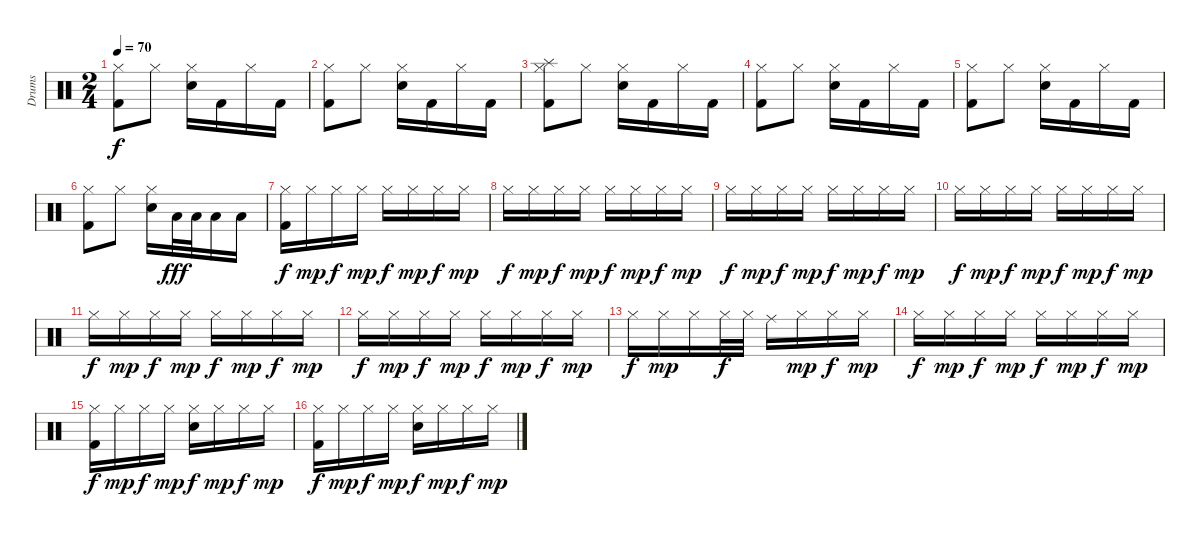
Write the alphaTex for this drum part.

\track ("Drums" "Drums") {instrument percussion}
\staff {score}
\articulation defaults
\ts (2 4)
\tempo 70
\clef neutral
\ks c
("Hi-Hat (closed)" "Kick (hit) 2").8{dy f} "Hi-Hat (closed)".8 ("Hi-Hat (closed)" "Electric Snare (hit)").16 "Kick (hit) 2".16 "Hi-Hat (closed)".16 "Kick (hit) 2".16 |
("Hi-Hat (closed)" "Kick (hit) 2").8 "Hi-Hat (closed)".8 ("Hi-Hat (closed)" "Electric Snare (hit)").16 "Kick (hit) 2".16 "Hi-Hat (closed)".16 "Kick (hit) 2".16 |
("Splash (hit)" "Hi-Hat (closed)" "Kick (hit) 2").8 "Hi-Hat (closed)".8 ("Hi-Hat (closed)" "Electric Snare (hit)").16 "Kick (hit) 2".16 "Hi-Hat (closed)".16 "Kick (hit) 2".16 |
("Hi-Hat (closed)" "Kick (hit) 2").8 "Hi-Hat (closed)".8 ("Hi-Hat (closed)" "Electric Snare (hit)").16 "Kick (hit) 2".16 "Hi-Hat (closed)".16 "Kick (hit) 2".16 |
("Hi-Hat (closed)" "Kick (hit) 2").8 "Hi-Hat (closed)".8 ("Hi-Hat (closed)" "Electric Snare (hit)").16 "Kick (hit) 2".16 "Hi-Hat (closed)".16 "Kick (hit) 2".16 |
("Hi-Hat (closed)" "Kick (hit) 2").8 "Hi-Hat (closed)".8 ("Hi-Hat (closed)" "Electric Snare (hit)").16 "Low Tom (hit)".32{dy fff} "Low Tom (hit)".32 "Low Tom (hit)".16 "Low Tom (hit)".16 |
("Hi-Hat (closed)" "Kick (hit) 2").16{dy f} "Hi-Hat (closed)".16{dy mp} "Hi-Hat (closed)".16{dy f} "Hi-Hat (closed)".16{dy mp} "Hi-Hat (closed)".16{dy f} "Hi-Hat (closed)".16{dy mp} "Hi-Hat (closed)".16{dy f} "Hi-Hat (closed)".16{dy mp} |
"Hi-Hat (closed)".16{dy f} "Hi-Hat (closed)".16{dy mp} "Hi-Hat (closed)".16{dy f} "Hi-Hat (closed)".16{dy mp} "Hi-Hat (closed)".16{dy f} "Hi-Hat (closed)".16{dy mp} "Hi-Hat (closed)".16{dy f} "Hi-Hat (closed)".16{dy mp} |
"Hi-Hat (closed)".16{dy f} "Hi-Hat (closed)".16{dy mp} "Hi-Hat (closed)".16{dy f} "Hi-Hat (closed)".16{dy mp} "Hi-Hat (closed)".16{dy f} "Hi-Hat (closed)".16{dy mp} "Hi-Hat (closed)".16{dy f} "Hi-Hat (closed)".16{dy mp} |
"Hi-Hat (closed)".16{dy f} "Hi-Hat (closed)".16{dy mp} "Hi-Hat (closed)".16{dy f} "Hi-Hat (closed)".16{dy mp} "Hi-Hat (closed)".16{dy f} "Hi-Hat (closed)".16{dy mp} "Hi-Hat (closed)".16{dy f} "Hi-Hat (closed)".16{dy mp} |
"Hi-Hat (closed)".16{dy f} "Hi-Hat (closed)".16{dy mp} "Hi-Hat (closed)".16{dy f} "Hi-Hat (closed)".16{dy mp} "Hi-Hat (closed)".16{dy f} "Hi-Hat (closed)".16{dy mp} "Hi-Hat (closed)".16{dy f} "Hi-Hat (closed)".16{dy mp} |
"Hi-Hat (closed)".16{dy f} "Hi-Hat (closed)".16{dy mp} "Hi-Hat (closed)".16{dy f} "Hi-Hat (closed)".16{dy mp} "Hi-Hat (closed)".16{dy f} "Hi-Hat (closed)".16{dy mp} "Hi-Hat (closed)".16{dy f} "Hi-Hat (closed)".16{dy mp} |
"Hi-Hat (closed)".16{dy f} "Hi-Hat (closed)".16{dy mp} "Hi-Hat (closed)".16 "Hi-Hat (closed)".32{dy f} "Hi-Hat (closed)".32 "Ride (middle)".16 "Hi-Hat (closed)".16{dy mp} "Hi-Hat (closed)".16{dy f} "Hi-Hat (closed)".16{dy mp} |
"Hi-Hat (closed)".16{dy f} "Hi-Hat (closed)".16{dy mp} "Hi-Hat (closed)".16{dy f} "Hi-Hat (closed)".16{dy mp} "Hi-Hat (closed)".16{dy f} "Hi-Hat (closed)".16{dy mp} "Hi-Hat (closed)".16{dy f} "Hi-Hat (closed)".16{dy mp} |
("Hi-Hat (closed)" "Kick (hit) 2").16{dy f} "Hi-Hat (closed)".16{dy mp} "Hi-Hat (closed)".16{dy f} "Hi-Hat (closed)".16{dy mp} ("Hi-Hat (closed)" "Electric Snare (hit)").16{dy f} "Hi-Hat (closed)".16{dy mp} "Hi-Hat (closed)".16{dy f} "Hi-Hat (closed)".16{dy mp} |
("Hi-Hat (closed)" "Kick (hit) 2").16{dy f} "Hi-Hat (closed)".16{dy mp} "Hi-Hat (closed)".16{dy f} "Hi-Hat (closed)".16{dy mp} ("Hi-Hat (closed)" "Electric Snare (hit)").16{dy f} "Hi-Hat (closed)".16{dy mp} "Hi-Hat (closed)".16{dy f} "Hi-Hat (closed)".16{dy mp}
